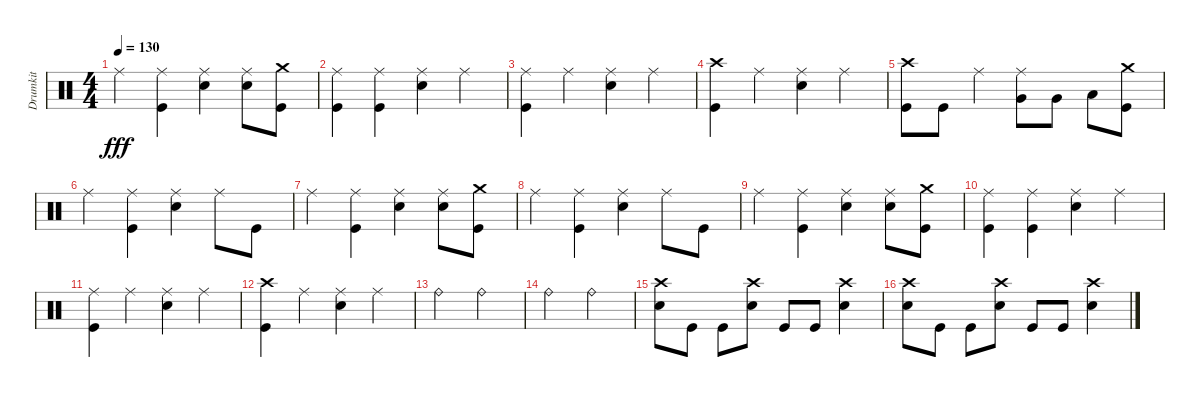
\track ("Drumkit" "Drumkit") {instrument percussion}
\staff {score}
\articulation defaults
\ts (4 4)
\tempo 130
\clef neutral
\ks c "Ride (middle)".4{dy fff}
("Ride (middle)" "Kick (hit)").4 ("Ride (middle)" "Snare (hit) 2").4 ("Ride (middle)" "Snare (hit) 2").8 ("Kick (hit)" "Crash medium (hit)").8 |
("Ride (middle)" "Kick (hit)").4 ("Ride (middle)" "Kick (hit)").4 ("Ride (middle)" "Snare (hit) 2").4 "Ride (middle)".4 |
("Ride (middle)" "Kick (hit)").4 "Ride (middle)".4 ("Ride (middle)" "Snare (hit) 2").4 "Ride (middle)".4 |
("Kick (hit)" "Crash high (hit)").4 "Ride (middle)".4 ("Ride (middle)" "Snare (hit) 2").4 "Ride (middle)".4 |
("Kick (hit)" "Crash high (hit)").8 "Kick (hit)".8 "Ride (middle)".4 ("Ride (middle)" "Very Low Tom (hit)").8 "Very Low Tom (hit)".8 "Low Tom (hit)".8 ("Crash medium (hit)" "Kick (hit)").8 |
"Ride (middle)".4 ("Ride (middle)" "Kick (hit)").4 ("Ride (middle)" "Snare (hit) 2").4 "Ride (middle)".8 "Kick (hit)".8 |
"Ride (middle)".4 ("Ride (middle)" "Kick (hit)").4 ("Ride (middle)" "Snare (hit) 2").4 ("Ride (middle)" "Snare (hit) 2").8 ("Kick (hit)" "Crash medium (hit)").8 |
"Ride (middle)".4 ("Ride (middle)" "Kick (hit)").4 ("Ride (middle)" "Snare (hit) 2").4 "Ride (middle)".8 "Kick (hit)".8 |
"Ride (middle)".4 ("Ride (middle)" "Kick (hit)").4 ("Ride (middle)" "Snare (hit) 2").4 ("Ride (middle)" "Snare (hit) 2").8 ("Kick (hit)" "Crash medium (hit)").8 |
("Ride (middle)" "Kick (hit)").4 ("Ride (middle)" "Kick (hit)").4 ("Ride (middle)" "Snare (hit) 2").4 "Ride (middle)".4 |
("Ride (middle)" "Kick (hit)").4 "Ride (middle)".4 ("Ride (middle)" "Snare (hit) 2").4 "Ride (middle)".4 |
("Kick (hit)" "Crash high (hit)").4 "Ride (middle)".4 ("Ride (middle)" "Snare (hit) 2").4 "Ride (middle)".4 |
"Ride (bell)".2 "Ride (bell)".2 |
"Ride (bell)".2 "Ride (bell)".2 |
("Snare (hit) 2" "Crash high (hit)").8 "Kick (hit)".8 "Kick (hit)".8 ("Snare (hit) 2" "Crash high (hit)").8 "Kick (hit)".8 "Kick (hit)".8 ("Snare (hit) 2" "Crash high (hit)").4 |
("Snare (hit) 2" "Crash high (hit)").8 "Kick (hit)".8 "Kick (hit)".8 ("Snare (hit) 2" "Crash high (hit)").8 "Kick (hit)".8 "Kick (hit)".8 ("Snare (hit) 2" "Crash high (hit)").4
